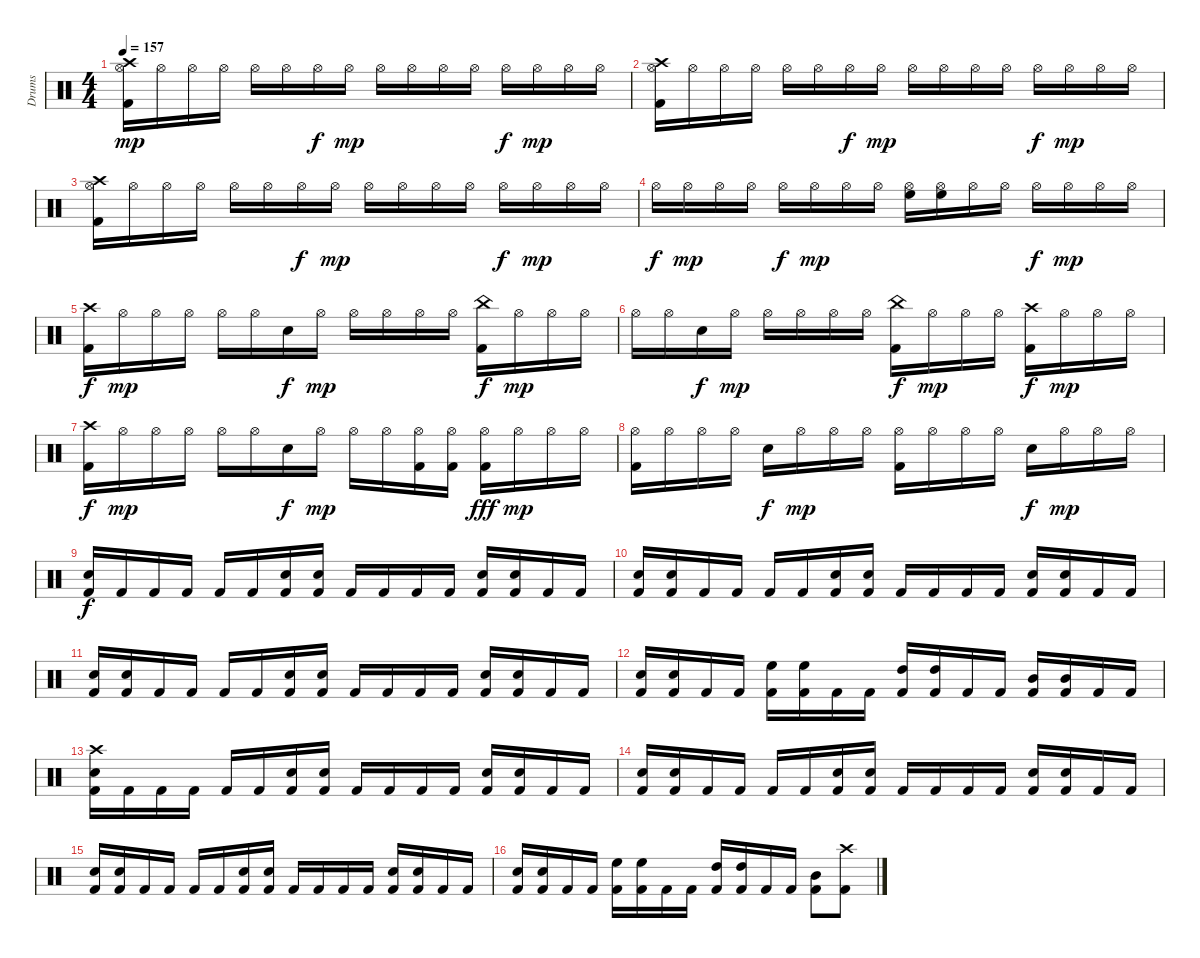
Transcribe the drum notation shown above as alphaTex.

\track ("Drums" "Drums") {instrument percussion}
\staff {score}
\articulation defaults
\ts (4 4)
\tempo 157
\clef neutral
\ks c
("Crash high (hit)" "Kick (hit) 2" "Hi-Hat (open)").16{dy mp} "Hi-Hat (open)".16 "Hi-Hat (open)".16 "Hi-Hat (open)".16 "Hi-Hat (open)".16 "Hi-Hat (open)".16 "Hi-Hat (open)".16{dy f} "Hi-Hat (open)".16{dy mp} "Hi-Hat (open)".16 "Hi-Hat (open)".16 "Hi-Hat (open)".16 "Hi-Hat (open)".16 "Hi-Hat (open)".16{dy f} "Hi-Hat (open)".16{dy mp} "Hi-Hat (open)".16 "Hi-Hat (open)".16 |
("Crash high (hit)" "Kick (hit) 2" "Hi-Hat (open)").16 "Hi-Hat (open)".16 "Hi-Hat (open)".16 "Hi-Hat (open)".16 "Hi-Hat (open)".16 "Hi-Hat (open)".16 "Hi-Hat (open)".16{dy f} "Hi-Hat (open)".16{dy mp} "Hi-Hat (open)".16 "Hi-Hat (open)".16 "Hi-Hat (open)".16 "Hi-Hat (open)".16 "Hi-Hat (open)".16{dy f} "Hi-Hat (open)".16{dy mp} "Hi-Hat (open)".16 "Hi-Hat (open)".16 |
("Hi-Hat (open)" "Crash high (hit)" "Kick (hit) 2").16 "Hi-Hat (open)".16 "Hi-Hat (open)".16 "Hi-Hat (open)".16 "Hi-Hat (open)".16 "Hi-Hat (open)".16 "Hi-Hat (open)".16{dy f} "Hi-Hat (open)".16{dy mp} "Hi-Hat (open)".16 "Hi-Hat (open)".16 "Hi-Hat (open)".16 "Hi-Hat (open)".16 "Hi-Hat (open)".16{dy f} "Hi-Hat (open)".16{dy mp} "Hi-Hat (open)".16 "Hi-Hat (open)".16 |
"Hi-Hat (open)".16{dy f} "Hi-Hat (open)".16{dy mp} "Hi-Hat (open)".16 "Hi-Hat (open)".16 "Hi-Hat (open)".16{dy f} "Hi-Hat (open)".16{dy mp} "Hi-Hat (open)".16 "Hi-Hat (open)".16 ("Hi-Hat (open)" "High Floor Tom (hit)").16 ("Hi-Hat (open)" "High Floor Tom (hit)").16 "Hi-Hat (open)".16 "Hi-Hat (open)".16 "Hi-Hat (open)".16{dy f} "Hi-Hat (open)".16{dy mp} "Hi-Hat (open)".16 "Hi-Hat (open)".16 |
("Crash high (hit)" "Kick (hit) 2").16{dy f} "Hi-Hat (open)".16{dy mp} "Hi-Hat (open)".16 "Hi-Hat (open)".16 "Hi-Hat (open)".16 "Hi-Hat (open)".16 "Electric Snare (hit)".16{dy f} "Hi-Hat (open)".16{dy mp} "Hi-Hat (open)".16 "Hi-Hat (open)".16 "Hi-Hat (open)".16 "Hi-Hat (open)".16 ("China (hit)" "Kick (hit) 2").16{dy f} "Hi-Hat (open)".16{dy mp} "Hi-Hat (open)".16 "Hi-Hat (open)".16 |
"Hi-Hat (open)".16 "Hi-Hat (open)".16 "Electric Snare (hit)".16{dy f} "Hi-Hat (open)".16{dy mp} "Hi-Hat (open)".16 "Hi-Hat (open)".16 "Hi-Hat (open)".16 "Hi-Hat (open)".16 ("China (hit)" "Kick (hit) 2").16{dy f} "Hi-Hat (open)".16{dy mp} "Hi-Hat (open)".16 "Hi-Hat (open)".16 ("Crash high (hit)" "Kick (hit) 2").16{dy f} "Hi-Hat (open)".16{dy mp} "Hi-Hat (open)".16 "Hi-Hat (open)".16 |
("Kick (hit) 2" "Crash high (hit)").16{dy f} "Hi-Hat (open)".16{dy mp} "Hi-Hat (open)".16 "Hi-Hat (open)".16 "Hi-Hat (open)".16 "Hi-Hat (open)".16 "Electric Snare (hit)".16{dy f} "Hi-Hat (open)".16{dy mp} "Hi-Hat (open)".16 "Hi-Hat (open)".16 ("Kick (hit) 2" "Hi-Hat (open)").16 ("Kick (hit) 2" "Hi-Hat (open)").16 ("Hi-Hat (open)" "Kick (hit) 2").16{dy fff} "Hi-Hat (open)".16{dy mp} "Hi-Hat (open)".16 "Hi-Hat (open)".16 |
("Kick (hit) 2" "Hi-Hat (open)").16 "Hi-Hat (open)".16 "Hi-Hat (open)".16 "Hi-Hat (open)".16 "Electric Snare (hit)".16{dy f} "Hi-Hat (open)".16{dy mp} "Hi-Hat (open)".16 "Hi-Hat (open)".16 ("Kick (hit) 2" "Hi-Hat (open)").16 "Hi-Hat (open)".16 "Hi-Hat (open)".16 "Hi-Hat (open)".16 "Electric Snare (hit)".16{dy f} "Hi-Hat (open)".16{dy mp} "Hi-Hat (open)".16 "Hi-Hat (open)".16 |
("Electric Snare (hit)" "Kick (hit) 2").16{dy f} "Kick (hit) 2".16 "Kick (hit) 2".16 "Kick (hit) 2".16 "Kick (hit) 2".16 "Kick (hit) 2".16 ("Kick (hit) 2" "Electric Snare (hit)").16 ("Kick (hit) 2" "Electric Snare (hit)").16 "Kick (hit) 2".16 "Kick (hit) 2".16 "Kick (hit) 2".16 "Kick (hit) 2".16 ("Kick (hit) 2" "Electric Snare (hit)").16 ("Kick (hit) 2" "Electric Snare (hit)").16 "Kick (hit) 2".16 "Kick (hit) 2".16 |
("Kick (hit) 2" "Electric Snare (hit)").16 ("Kick (hit) 2" "Electric Snare (hit)").16 "Kick (hit) 2".16 "Kick (hit) 2".16 "Kick (hit) 2".16 "Kick (hit) 2".16 ("Kick (hit) 2" "Electric Snare (hit)").16 ("Kick (hit) 2" "Electric Snare (hit)").16 "Kick (hit) 2".16 "Kick (hit) 2".16 "Kick (hit) 2".16 "Kick (hit) 2".16 ("Kick (hit) 2" "Electric Snare (hit)").16 ("Kick (hit) 2" "Electric Snare (hit)").16 "Kick (hit) 2".16 "Kick (hit) 2".16 |
("Kick (hit) 2" "Electric Snare (hit)").16 ("Kick (hit) 2" "Electric Snare (hit)").16 "Kick (hit) 2".16 "Kick (hit) 2".16 "Kick (hit) 2".16 "Kick (hit) 2".16 ("Kick (hit) 2" "Electric Snare (hit)").16 ("Kick (hit) 2" "Electric Snare (hit)").16 "Kick (hit) 2".16 "Kick (hit) 2".16 "Kick (hit) 2".16 "Kick (hit) 2".16 ("Kick (hit) 2" "Electric Snare (hit)").16 ("Kick (hit) 2" "Electric Snare (hit)").16 "Kick (hit) 2".16 "Kick (hit) 2".16 |
("Kick (hit) 2" "Electric Snare (hit)").16 ("Kick (hit) 2" "Electric Snare (hit)").16 "Kick (hit) 2".16 "Kick (hit) 2".16 ("Kick (hit) 2" "High Floor Tom (hit)").16 ("Kick (hit) 2" "High Floor Tom (hit)").16 "Kick (hit) 2".16 "Kick (hit) 2".16 ("Kick (hit) 2" "High Tom (hit)").16 ("Kick (hit) 2" "High Tom (hit)").16 "Kick (hit) 2".16 "Kick (hit) 2".16 ("Kick (hit) 2" "Mid Tom (hit)").16 ("Kick (hit) 2" "Mid Tom (hit)").16 "Kick (hit) 2".16 "Kick (hit) 2".16 |
("Kick (hit) 2" "Crash high (hit)" "Electric Snare (hit)").16 "Kick (hit) 2".16 "Kick (hit) 2".16 "Kick (hit) 2".16 "Kick (hit) 2".16 "Kick (hit) 2".16 ("Kick (hit) 2" "Electric Snare (hit)").16 ("Kick (hit) 2" "Electric Snare (hit)").16 "Kick (hit) 2".16 "Kick (hit) 2".16 "Kick (hit) 2".16 "Kick (hit) 2".16 ("Kick (hit) 2" "Electric Snare (hit)").16 ("Kick (hit) 2" "Electric Snare (hit)").16 "Kick (hit) 2".16 "Kick (hit) 2".16 |
("Kick (hit) 2" "Electric Snare (hit)").16 ("Kick (hit) 2" "Electric Snare (hit)").16 "Kick (hit) 2".16 "Kick (hit) 2".16 "Kick (hit) 2".16 "Kick (hit) 2".16 ("Kick (hit) 2" "Electric Snare (hit)").16 ("Kick (hit) 2" "Electric Snare (hit)").16 "Kick (hit) 2".16 "Kick (hit) 2".16 "Kick (hit) 2".16 "Kick (hit) 2".16 ("Kick (hit) 2" "Electric Snare (hit)").16 ("Kick (hit) 2" "Electric Snare (hit)").16 "Kick (hit) 2".16 "Kick (hit) 2".16 |
("Kick (hit) 2" "Electric Snare (hit)").16 ("Kick (hit) 2" "Electric Snare (hit)").16 "Kick (hit) 2".16 "Kick (hit) 2".16 "Kick (hit) 2".16 "Kick (hit) 2".16 ("Kick (hit) 2" "Electric Snare (hit)").16 ("Kick (hit) 2" "Electric Snare (hit)").16 "Kick (hit) 2".16 "Kick (hit) 2".16 "Kick (hit) 2".16 "Kick (hit) 2".16 ("Kick (hit) 2" "Electric Snare (hit)").16 ("Kick (hit) 2" "Electric Snare (hit)").16 "Kick (hit) 2".16 "Kick (hit) 2".16 |
("Kick (hit) 2" "Electric Snare (hit)").16 ("Kick (hit) 2" "Electric Snare (hit)").16 "Kick (hit) 2".16 "Kick (hit) 2".16 ("Kick (hit) 2" "High Floor Tom (hit)").16 ("Kick (hit) 2" "High Floor Tom (hit)").16 "Kick (hit) 2".16 "Kick (hit) 2".16 ("Kick (hit) 2" "High Tom (hit)").16 ("Kick (hit) 2" "High Tom (hit)").16 "Kick (hit) 2".16 "Kick (hit) 2".16 ("Kick (hit) 2" "Mid Tom (hit)").8 ("Kick (hit) 2" "Crash high (hit)").8
